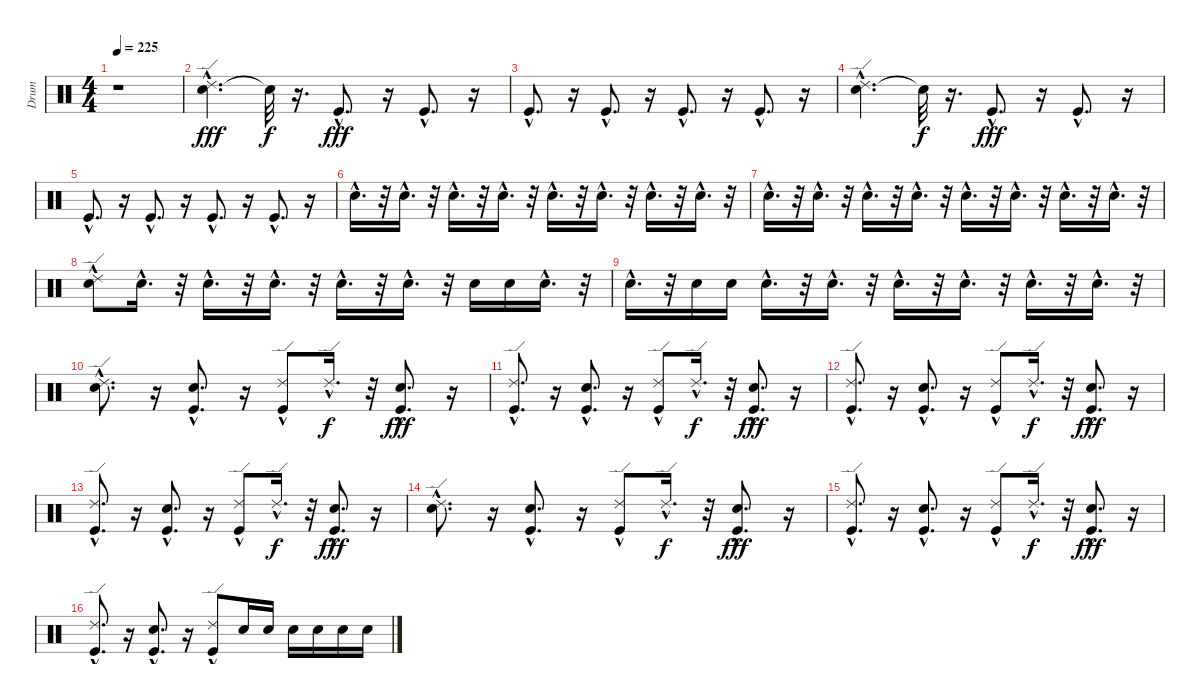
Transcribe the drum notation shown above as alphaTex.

\track ("Drum" "Drum") {instrument percussion}
\staff {score}
\articulation defaults
\ts (4 4)
\tempo 225
\clef neutral
\ks c
r.1{dy fff} |
("Snare (hit) 2"{hac} "Ride (edge) 2"{hac}).4{d} "Snare (hit)"{t}.32{dy f} r.16{d} "Kick (hit)"{hac}.8{d dy fff} r.16 "Kick (hit)"{hac}.8{d} r.16 |
"Kick (hit)"{hac}.8{d} r.16 "Kick (hit)"{hac}.8{d} r.16 "Kick (hit)"{hac}.8{d} r.16 "Kick (hit)"{hac}.8{d} r.16 |
("Snare (hit) 2"{hac} "Ride (edge) 2"{hac}).4{d} "Snare (hit)"{t}.32{dy f} r.16{d} "Kick (hit)"{hac}.8{d dy fff} r.16 "Kick (hit)"{hac}.8{d} r.16 |
"Kick (hit)"{hac}.8{d} r.16 "Kick (hit)"{hac}.8{d} r.16 "Kick (hit)"{hac}.8{d} r.16 "Kick (hit)"{hac}.8{d} r.16 |
"Electric Snare (hit)"{hac}.16{d} r.32 "Electric Snare (hit)"{hac}.16{d} r.32 "Electric Snare (hit)"{hac}.16{d} r.32 "Electric Snare (hit)"{hac}.16{d} r.32 "Electric Snare (hit)"{hac}.16{d} r.32 "Electric Snare (hit)"{hac}.16{d} r.32 "Electric Snare (hit)"{hac}.16{d} r.32 "Electric Snare (hit)"{hac}.16{d} r.32 |
"Electric Snare (hit)"{hac}.16{d} r.32 "Electric Snare (hit)"{hac}.16{d} r.32 "Electric Snare (hit)"{hac}.16{d} r.32 "Electric Snare (hit)"{hac}.16{d} r.32 "Electric Snare (hit)"{hac}.16{d} r.32 "Electric Snare (hit)"{hac}.16{d} r.32 "Electric Snare (hit)"{hac}.16{d} r.32 "Electric Snare (hit)"{hac}.16{d} r.32 |
("Snare (hit) 2"{hac} "Ride (edge) 2"{hac}).8 "Electric Snare (hit)"{hac}.16{d} r.32 "Electric Snare (hit)"{hac}.16{d} r.32 "Electric Snare (hit)"{hac}.16{d} r.32 "Electric Snare (hit)"{hac}.16{d} r.32 "Electric Snare (hit)"{hac}.16{d} r.32 "Electric Snare (hit)".16 "Electric Snare (hit)".16 "Electric Snare (hit)"{hac}.16{d} r.32 |
"Electric Snare (hit)"{hac}.16{d} r.32 "Electric Snare (hit)".16 "Electric Snare (hit)".16 "Electric Snare (hit)"{hac}.16{d} r.32 "Electric Snare (hit)"{hac}.16{d} r.32 "Electric Snare (hit)"{hac}.16{d} r.32 "Electric Snare (hit)"{hac}.16{d} r.32 "Electric Snare (hit)"{hac}.16{d} r.32 "Electric Snare (hit)"{hac}.16{d} r.32 |
("Snare (hit) 2"{hac} "Ride (edge) 2"{hac}).8{d} r.16 ("Kick (hit)"{hac} "Electric Snare (hit)"{hac}).8{d} r.16 ("Kick (hit)"{hac} "Ride (edge) 2"{hac}).8 "Ride (edge) 2"{hac}.16{d dy f} r.32 ("Kick (hit)"{hac} "Electric Snare (hit)"{hac}).8{d dy fff} r.16 |
("Kick (hit)"{hac} "Ride (edge) 2"{hac}).8{d} r.16 ("Kick (hit)"{hac} "Electric Snare (hit)"{hac}).8{d} r.16 ("Kick (hit)"{hac} "Ride (edge) 2"{hac}).8 "Ride (edge) 2"{hac}.16{d dy f} r.32 ("Kick (hit)"{hac} "Electric Snare (hit)"{hac}).8{d dy fff} r.16 |
("Kick (hit)"{hac} "Ride (edge) 2"{hac}).8{d} r.16 ("Kick (hit)"{hac} "Electric Snare (hit)"{hac}).8{d} r.16 ("Kick (hit)"{hac} "Ride (edge) 2"{hac}).8 "Ride (edge) 2"{hac}.16{d dy f} r.32 ("Kick (hit)"{hac} "Electric Snare (hit)"{hac}).8{d dy fff} r.16 |
("Kick (hit)"{hac} "Ride (edge) 2"{hac}).8{d} r.16 ("Kick (hit)"{hac} "Electric Snare (hit)"{hac}).8{d} r.16 ("Kick (hit)"{hac} "Ride (edge) 2"{hac}).8 "Ride (edge) 2"{hac}.16{d dy f} r.32 ("Kick (hit)"{hac} "Electric Snare (hit)"{hac}).8{d dy fff} r.16 |
("Snare (hit) 2"{hac} "Ride (edge) 2"{hac}).8{d} r.16 ("Kick (hit)"{hac} "Electric Snare (hit)"{hac}).8{d} r.16 ("Kick (hit)"{hac} "Ride (edge) 2"{hac}).8 "Ride (edge) 2"{hac}.16{d dy f} r.32 ("Kick (hit)"{hac} "Electric Snare (hit)"{hac}).8{d dy fff} r.16 |
("Kick (hit)"{hac} "Ride (edge) 2"{hac}).8{d} r.16 ("Kick (hit)"{hac} "Electric Snare (hit)"{hac}).8{d} r.16 ("Kick (hit)"{hac} "Ride (edge) 2"{hac}).8 "Ride (edge) 2"{hac}.16{d dy f} r.32 ("Kick (hit)"{hac} "Electric Snare (hit)"{hac}).8{d dy fff} r.16 |
("Kick (hit)"{hac} "Ride (edge) 2"{hac}).8{d} r.16 ("Kick (hit)"{hac} "Electric Snare (hit)"{hac}).8{d} r.16 ("Kick (hit)"{hac} "Ride (edge) 2"{hac}).8 "Electric Snare (hit)".16 "Electric Snare (hit)".16 "Electric Snare (hit)".16 "Electric Snare (hit)".16 "Electric Snare (hit)".16 "Electric Snare (hit)".16
